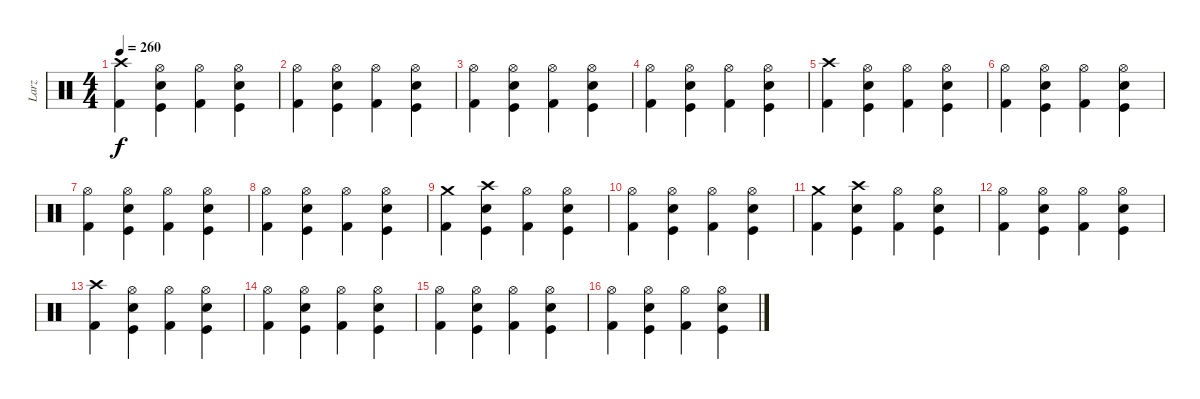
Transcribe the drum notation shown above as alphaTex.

\track ("Larz" "Larz") {instrument percussion}
\staff {score}
\articulation defaults
\ts (4 4)
\tempo 260
\clef neutral
\ks c
("Crash high (hit)" "Kick (hit) 2").4{dy f} ("Hi-Hat (open)" "Kick (hit)" "Electric Snare (hit)").4 ("Hi-Hat (open)" "Kick (hit) 2").4 ("Hi-Hat (open)" "Kick (hit)" "Electric Snare (hit)").4 |
("Hi-Hat (open)" "Kick (hit) 2").4 ("Hi-Hat (open)" "Kick (hit)" "Electric Snare (hit)").4 ("Hi-Hat (open)" "Kick (hit) 2").4 ("Hi-Hat (open)" "Kick (hit)" "Electric Snare (hit)").4 |
("Hi-Hat (open)" "Kick (hit) 2").4 ("Hi-Hat (open)" "Kick (hit)" "Electric Snare (hit)").4 ("Hi-Hat (open)" "Kick (hit) 2").4 ("Hi-Hat (open)" "Kick (hit)" "Electric Snare (hit)").4 |
("Hi-Hat (open)" "Kick (hit) 2").4 ("Hi-Hat (open)" "Kick (hit)" "Electric Snare (hit)").4 ("Hi-Hat (open)" "Kick (hit) 2").4 ("Hi-Hat (open)" "Kick (hit)" "Electric Snare (hit)").4 |
("Crash high (hit)" "Kick (hit) 2").4 ("Hi-Hat (open)" "Kick (hit)" "Electric Snare (hit)").4 ("Hi-Hat (open)" "Kick (hit) 2").4 ("Hi-Hat (open)" "Kick (hit)" "Electric Snare (hit)").4 |
("Hi-Hat (open)" "Kick (hit) 2").4 ("Hi-Hat (open)" "Kick (hit)" "Electric Snare (hit)").4 ("Hi-Hat (open)" "Kick (hit) 2").4 ("Hi-Hat (open)" "Kick (hit)" "Electric Snare (hit)").4 |
("Hi-Hat (open)" "Kick (hit) 2").4 ("Hi-Hat (open)" "Kick (hit)" "Electric Snare (hit)").4 ("Hi-Hat (open)" "Kick (hit) 2").4 ("Hi-Hat (open)" "Kick (hit)" "Electric Snare (hit)").4 |
("Hi-Hat (open)" "Kick (hit) 2").4 ("Hi-Hat (open)" "Kick (hit)" "Electric Snare (hit)").4 ("Hi-Hat (open)" "Kick (hit) 2").4 ("Hi-Hat (open)" "Kick (hit)" "Electric Snare (hit)").4 |
("Crash medium (hit)" "Kick (hit) 2").4 ("Crash high (hit)" "Kick (hit)" "Electric Snare (hit)").4 ("Hi-Hat (open)" "Kick (hit) 2").4 ("Hi-Hat (open)" "Kick (hit)" "Electric Snare (hit)").4 |
("Hi-Hat (open)" "Kick (hit) 2").4 ("Hi-Hat (open)" "Kick (hit)" "Electric Snare (hit)").4 ("Hi-Hat (open)" "Kick (hit) 2").4 ("Hi-Hat (open)" "Kick (hit)" "Electric Snare (hit)").4 |
("Crash medium (hit)" "Kick (hit) 2").4 ("Crash high (hit)" "Kick (hit)" "Electric Snare (hit)").4 ("Hi-Hat (open)" "Kick (hit) 2").4 ("Hi-Hat (open)" "Kick (hit)" "Electric Snare (hit)").4 |
("Hi-Hat (open)" "Kick (hit) 2").4 ("Hi-Hat (open)" "Kick (hit)" "Electric Snare (hit)").4 ("Hi-Hat (open)" "Kick (hit) 2").4 ("Hi-Hat (open)" "Kick (hit)" "Electric Snare (hit)").4 |
("Crash high (hit)" "Kick (hit) 2").4 ("Hi-Hat (open)" "Kick (hit)" "Electric Snare (hit)").4 ("Hi-Hat (open)" "Kick (hit) 2").4 ("Hi-Hat (open)" "Kick (hit)" "Electric Snare (hit)").4 |
("Hi-Hat (open)" "Kick (hit) 2").4 ("Hi-Hat (open)" "Kick (hit)" "Electric Snare (hit)").4 ("Hi-Hat (open)" "Kick (hit) 2").4 ("Hi-Hat (open)" "Kick (hit)" "Electric Snare (hit)").4 |
("Hi-Hat (open)" "Kick (hit) 2").4 ("Hi-Hat (open)" "Kick (hit)" "Electric Snare (hit)").4 ("Hi-Hat (open)" "Kick (hit) 2").4 ("Hi-Hat (open)" "Kick (hit)" "Electric Snare (hit)").4 |
("Hi-Hat (open)" "Kick (hit) 2").4 ("Hi-Hat (open)" "Kick (hit)" "Electric Snare (hit)").4 ("Hi-Hat (open)" "Kick (hit) 2").4 ("Hi-Hat (open)" "Kick (hit)" "Electric Snare (hit)").4
